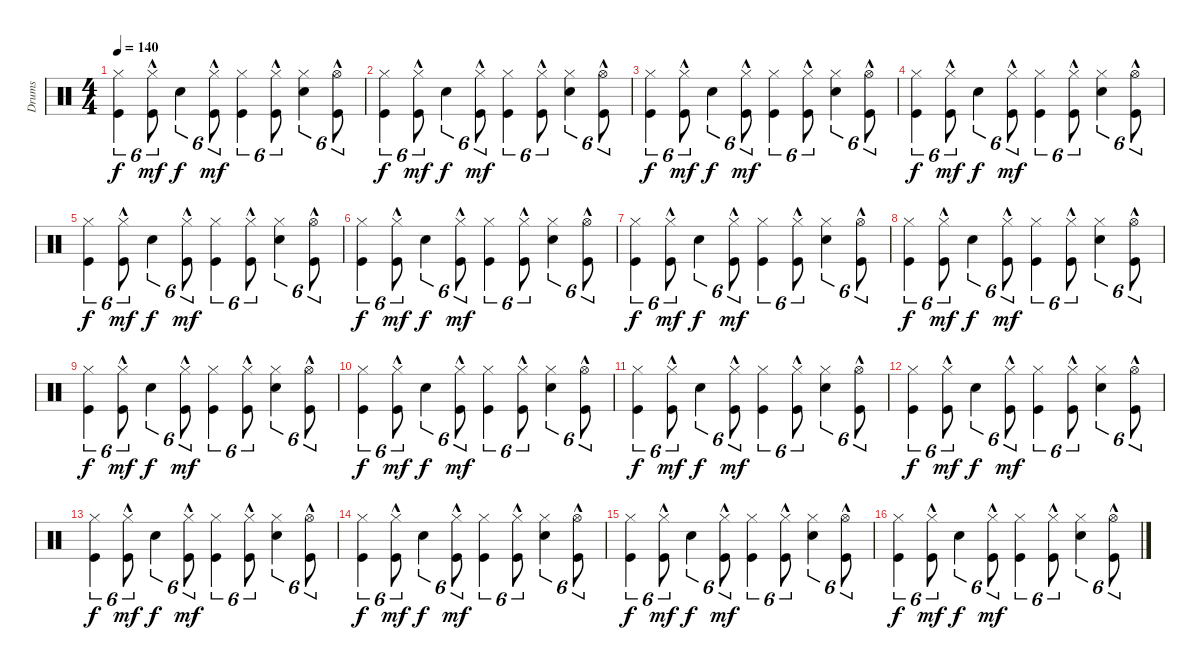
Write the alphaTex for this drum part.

\track ("Drums" "Drums") {instrument percussion}
\staff {score}
\articulation defaults
\ts (4 4)
\tempo 140
\clef neutral
\ks c
("Kick (hit)" "Hi-Hat (closed)").4{tu (6 4) dy f} ("Kick (hit)"{hac} "Hi-Hat (closed)"{hac}).8{tu (6 4) dy mf} "Electric Snare (hit)".4{tu (6 4) dy f} ("Kick (hit)"{hac} "Hi-Hat (closed)"{hac}).8{tu (6 4) dy mf} ("Kick (hit)" "Hi-Hat (closed)").4{tu (6 4)} ("Kick (hit)"{hac} "Hi-Hat (closed)"{hac}).8{tu (6 4)} ("Electric Snare (hit)" "Hi-Hat (closed)").4{tu (6 4)} ("Kick (hit)"{hac} "Hi-Hat (open)"{hac}).8{tu (6 4)} |
("Kick (hit)" "Hi-Hat (closed)").4{tu (6 4) dy f} ("Kick (hit)"{hac} "Hi-Hat (closed)"{hac}).8{tu (6 4) dy mf} "Electric Snare (hit)".4{tu (6 4) dy f} ("Kick (hit)"{hac} "Hi-Hat (closed)"{hac}).8{tu (6 4) dy mf} ("Kick (hit)" "Hi-Hat (closed)").4{tu (6 4)} ("Kick (hit)"{hac} "Hi-Hat (closed)"{hac}).8{tu (6 4)} ("Electric Snare (hit)" "Hi-Hat (closed)").4{tu (6 4)} ("Kick (hit)"{hac} "Hi-Hat (open)"{hac}).8{tu (6 4)} |
("Kick (hit)" "Hi-Hat (closed)").4{tu (6 4) dy f} ("Kick (hit)"{hac} "Hi-Hat (closed)"{hac}).8{tu (6 4) dy mf} "Electric Snare (hit)".4{tu (6 4) dy f} ("Kick (hit)"{hac} "Hi-Hat (closed)"{hac}).8{tu (6 4) dy mf} ("Kick (hit)" "Hi-Hat (closed)").4{tu (6 4)} ("Kick (hit)"{hac} "Hi-Hat (closed)"{hac}).8{tu (6 4)} ("Electric Snare (hit)" "Hi-Hat (closed)").4{tu (6 4)} ("Kick (hit)"{hac} "Hi-Hat (open)"{hac}).8{tu (6 4)} |
("Kick (hit)" "Hi-Hat (closed)").4{tu (6 4) dy f} ("Kick (hit)"{hac} "Hi-Hat (closed)"{hac}).8{tu (6 4) dy mf} "Electric Snare (hit)".4{tu (6 4) dy f} ("Kick (hit)"{hac} "Hi-Hat (closed)"{hac}).8{tu (6 4) dy mf} ("Kick (hit)" "Hi-Hat (closed)").4{tu (6 4)} ("Kick (hit)"{hac} "Hi-Hat (closed)"{hac}).8{tu (6 4)} ("Electric Snare (hit)" "Hi-Hat (closed)").4{tu (6 4)} ("Kick (hit)"{hac} "Hi-Hat (open)"{hac}).8{tu (6 4)} |
("Kick (hit)" "Hi-Hat (closed)").4{tu (6 4) dy f} ("Kick (hit)"{hac} "Hi-Hat (closed)"{hac}).8{tu (6 4) dy mf} "Electric Snare (hit)".4{tu (6 4) dy f} ("Kick (hit)"{hac} "Hi-Hat (closed)"{hac}).8{tu (6 4) dy mf} ("Kick (hit)" "Hi-Hat (closed)").4{tu (6 4)} ("Kick (hit)"{hac} "Hi-Hat (closed)"{hac}).8{tu (6 4)} ("Electric Snare (hit)" "Hi-Hat (closed)").4{tu (6 4)} ("Kick (hit)"{hac} "Hi-Hat (open)"{hac}).8{tu (6 4)} |
("Kick (hit)" "Hi-Hat (closed)").4{tu (6 4) dy f} ("Kick (hit)"{hac} "Hi-Hat (closed)"{hac}).8{tu (6 4) dy mf} "Electric Snare (hit)".4{tu (6 4) dy f} ("Kick (hit)"{hac} "Hi-Hat (closed)"{hac}).8{tu (6 4) dy mf} ("Kick (hit)" "Hi-Hat (closed)").4{tu (6 4)} ("Kick (hit)"{hac} "Hi-Hat (closed)"{hac}).8{tu (6 4)} ("Electric Snare (hit)" "Hi-Hat (closed)").4{tu (6 4)} ("Kick (hit)"{hac} "Hi-Hat (open)"{hac}).8{tu (6 4)} |
("Kick (hit)" "Hi-Hat (closed)").4{tu (6 4) dy f} ("Kick (hit)"{hac} "Hi-Hat (closed)"{hac}).8{tu (6 4) dy mf} "Electric Snare (hit)".4{tu (6 4) dy f} ("Kick (hit)"{hac} "Hi-Hat (closed)"{hac}).8{tu (6 4) dy mf} ("Kick (hit)" "Hi-Hat (closed)").4{tu (6 4)} ("Kick (hit)"{hac} "Hi-Hat (closed)"{hac}).8{tu (6 4)} ("Electric Snare (hit)" "Hi-Hat (closed)").4{tu (6 4)} ("Kick (hit)"{hac} "Hi-Hat (open)"{hac}).8{tu (6 4)} |
("Kick (hit)" "Hi-Hat (closed)").4{tu (6 4) dy f} ("Kick (hit)"{hac} "Hi-Hat (closed)"{hac}).8{tu (6 4) dy mf} "Electric Snare (hit)".4{tu (6 4) dy f} ("Kick (hit)"{hac} "Hi-Hat (closed)"{hac}).8{tu (6 4) dy mf} ("Kick (hit)" "Hi-Hat (closed)").4{tu (6 4)} ("Kick (hit)"{hac} "Hi-Hat (closed)"{hac}).8{tu (6 4)} ("Electric Snare (hit)" "Hi-Hat (closed)").4{tu (6 4)} ("Kick (hit)"{hac} "Hi-Hat (open)"{hac}).8{tu (6 4)} |
("Kick (hit)" "Hi-Hat (closed)").4{tu (6 4) dy f} ("Kick (hit)"{hac} "Hi-Hat (closed)"{hac}).8{tu (6 4) dy mf} "Electric Snare (hit)".4{tu (6 4) dy f} ("Kick (hit)"{hac} "Hi-Hat (closed)"{hac}).8{tu (6 4) dy mf} ("Kick (hit)" "Hi-Hat (closed)").4{tu (6 4)} ("Kick (hit)"{hac} "Hi-Hat (closed)"{hac}).8{tu (6 4)} ("Electric Snare (hit)" "Hi-Hat (closed)").4{tu (6 4)} ("Kick (hit)"{hac} "Hi-Hat (open)"{hac}).8{tu (6 4)} |
("Kick (hit)" "Hi-Hat (closed)").4{tu (6 4) dy f} ("Kick (hit)"{hac} "Hi-Hat (closed)"{hac}).8{tu (6 4) dy mf} "Electric Snare (hit)".4{tu (6 4) dy f} ("Kick (hit)"{hac} "Hi-Hat (closed)"{hac}).8{tu (6 4) dy mf} ("Kick (hit)" "Hi-Hat (closed)").4{tu (6 4)} ("Kick (hit)"{hac} "Hi-Hat (closed)"{hac}).8{tu (6 4)} ("Electric Snare (hit)" "Hi-Hat (closed)").4{tu (6 4)} ("Kick (hit)"{hac} "Hi-Hat (open)"{hac}).8{tu (6 4)} |
("Kick (hit)" "Hi-Hat (closed)").4{tu (6 4) dy f} ("Kick (hit)"{hac} "Hi-Hat (closed)"{hac}).8{tu (6 4) dy mf} "Electric Snare (hit)".4{tu (6 4) dy f} ("Kick (hit)"{hac} "Hi-Hat (closed)"{hac}).8{tu (6 4) dy mf} ("Kick (hit)" "Hi-Hat (closed)").4{tu (6 4)} ("Kick (hit)"{hac} "Hi-Hat (closed)"{hac}).8{tu (6 4)} ("Electric Snare (hit)" "Hi-Hat (closed)").4{tu (6 4)} ("Kick (hit)"{hac} "Hi-Hat (open)"{hac}).8{tu (6 4)} |
("Kick (hit)" "Hi-Hat (closed)").4{tu (6 4) dy f} ("Kick (hit)"{hac} "Hi-Hat (closed)"{hac}).8{tu (6 4) dy mf} "Electric Snare (hit)".4{tu (6 4) dy f} ("Kick (hit)"{hac} "Hi-Hat (closed)"{hac}).8{tu (6 4) dy mf} ("Kick (hit)" "Hi-Hat (closed)").4{tu (6 4)} ("Kick (hit)"{hac} "Hi-Hat (closed)"{hac}).8{tu (6 4)} ("Electric Snare (hit)" "Hi-Hat (closed)").4{tu (6 4)} ("Kick (hit)"{hac} "Hi-Hat (open)"{hac}).8{tu (6 4)} |
("Kick (hit)" "Hi-Hat (closed)").4{tu (6 4) dy f} ("Kick (hit)"{hac} "Hi-Hat (closed)"{hac}).8{tu (6 4) dy mf} "Electric Snare (hit)".4{tu (6 4) dy f} ("Kick (hit)"{hac} "Hi-Hat (closed)"{hac}).8{tu (6 4) dy mf} ("Kick (hit)" "Hi-Hat (closed)").4{tu (6 4)} ("Kick (hit)"{hac} "Hi-Hat (closed)"{hac}).8{tu (6 4)} ("Electric Snare (hit)" "Hi-Hat (closed)").4{tu (6 4)} ("Kick (hit)"{hac} "Hi-Hat (open)"{hac}).8{tu (6 4)} |
("Kick (hit)" "Hi-Hat (closed)").4{tu (6 4) dy f} ("Kick (hit)"{hac} "Hi-Hat (closed)"{hac}).8{tu (6 4) dy mf} "Electric Snare (hit)".4{tu (6 4) dy f} ("Kick (hit)"{hac} "Hi-Hat (closed)"{hac}).8{tu (6 4) dy mf} ("Kick (hit)" "Hi-Hat (closed)").4{tu (6 4)} ("Kick (hit)"{hac} "Hi-Hat (closed)"{hac}).8{tu (6 4)} ("Electric Snare (hit)" "Hi-Hat (closed)").4{tu (6 4)} ("Kick (hit)"{hac} "Hi-Hat (open)"{hac}).8{tu (6 4)} |
("Kick (hit)" "Hi-Hat (closed)").4{tu (6 4) dy f} ("Kick (hit)"{hac} "Hi-Hat (closed)"{hac}).8{tu (6 4) dy mf} "Electric Snare (hit)".4{tu (6 4) dy f} ("Kick (hit)"{hac} "Hi-Hat (closed)"{hac}).8{tu (6 4) dy mf} ("Kick (hit)" "Hi-Hat (closed)").4{tu (6 4)} ("Kick (hit)"{hac} "Hi-Hat (closed)"{hac}).8{tu (6 4)} ("Electric Snare (hit)" "Hi-Hat (closed)").4{tu (6 4)} ("Kick (hit)"{hac} "Hi-Hat (open)"{hac}).8{tu (6 4)} |
("Kick (hit)" "Hi-Hat (closed)").4{tu (6 4) dy f} ("Kick (hit)"{hac} "Hi-Hat (closed)"{hac}).8{tu (6 4) dy mf} "Electric Snare (hit)".4{tu (6 4) dy f} ("Kick (hit)"{hac} "Hi-Hat (closed)"{hac}).8{tu (6 4) dy mf} ("Kick (hit)" "Hi-Hat (closed)").4{tu (6 4)} ("Kick (hit)"{hac} "Hi-Hat (closed)"{hac}).8{tu (6 4)} ("Electric Snare (hit)" "Hi-Hat (closed)").4{tu (6 4)} ("Kick (hit)"{hac} "Hi-Hat (open)"{hac}).8{tu (6 4)}
